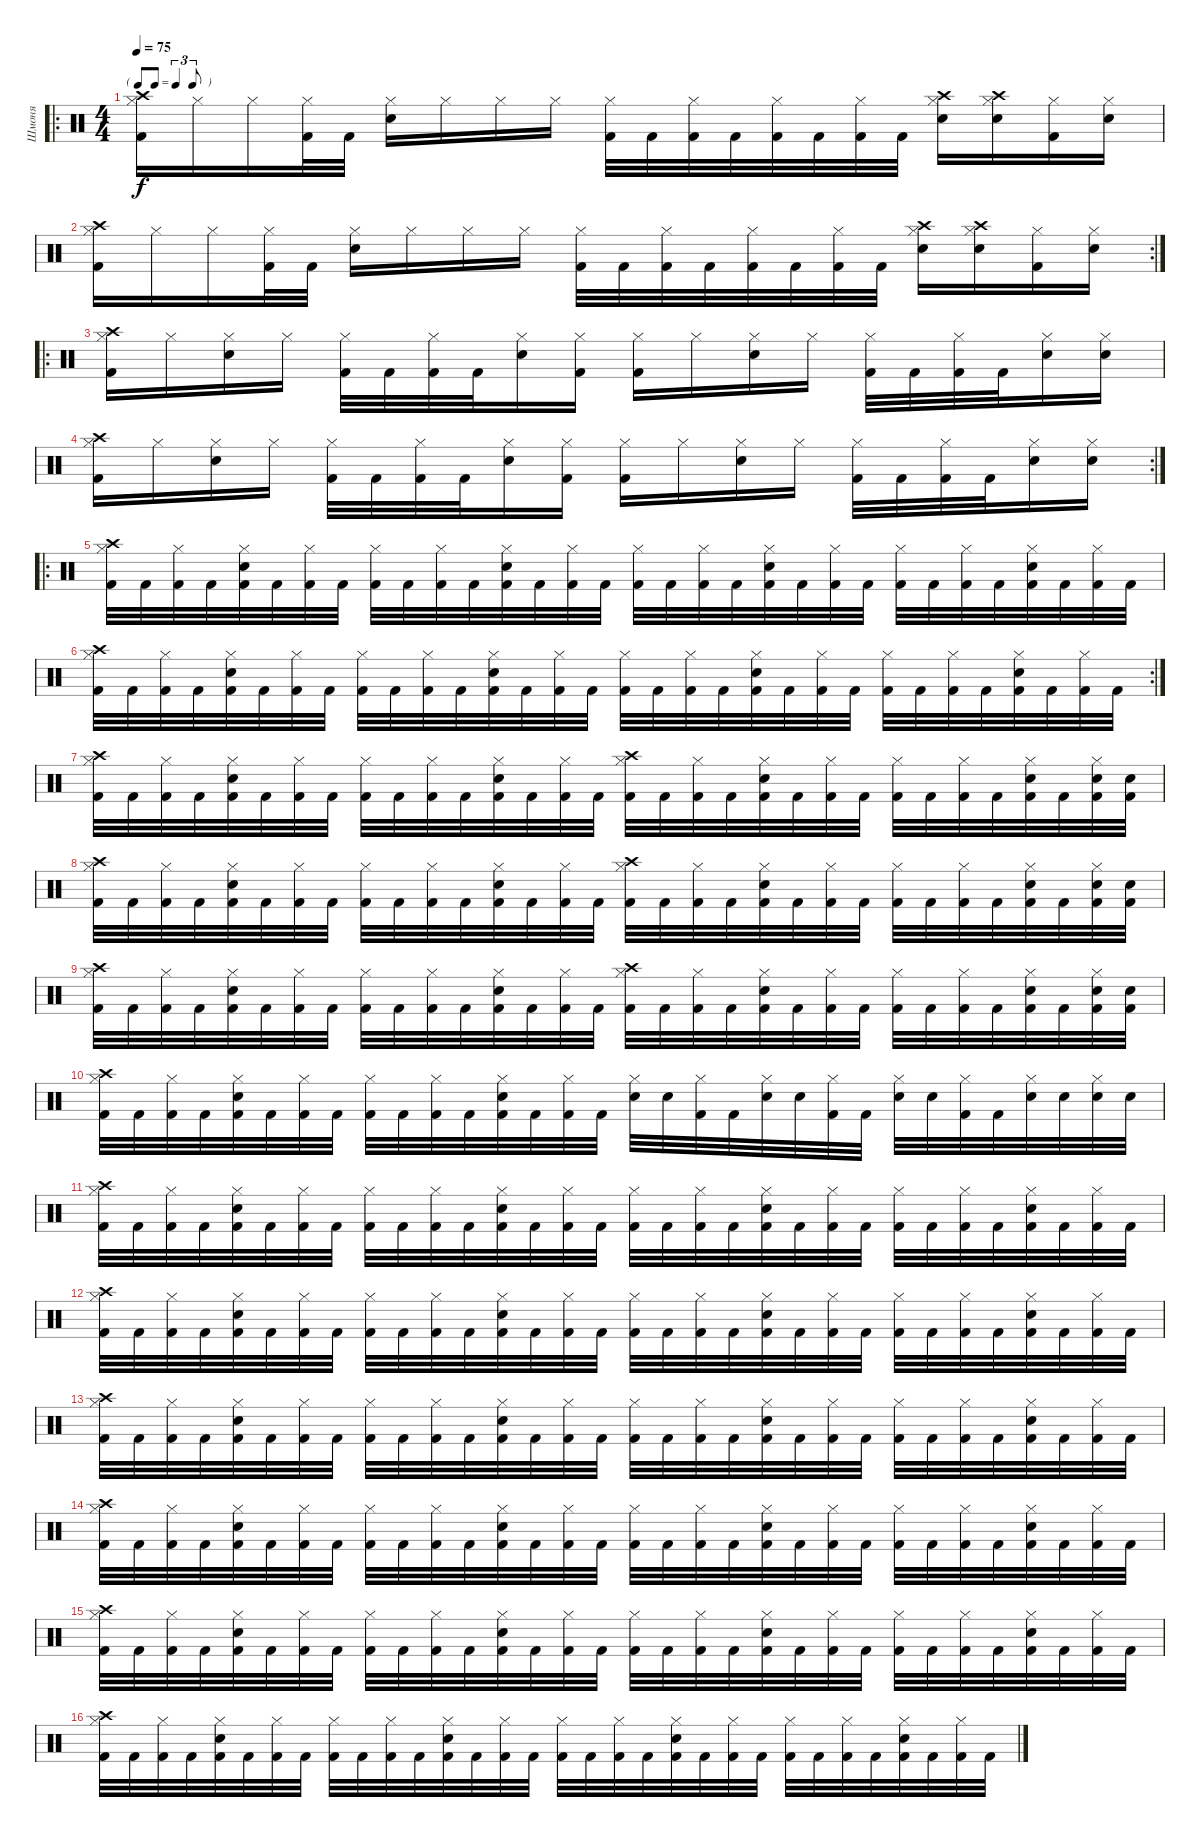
\track ("Шмоня" "Шмоня") {instrument percussion}
\staff {score}
\articulation defaults
\ro
\ts (4 4)
\tf triplet8th
\tempo 75
\clef neutral
\ks c
("Hi-Hat (closed)" "Crash high (hit)" "Kick (hit) 2").16{dy f} "Hi-Hat (closed)".16 "Hi-Hat (closed)".16 ("Hi-Hat (closed)" "Kick (hit) 2").32 "Kick (hit) 2".32 ("Hi-Hat (closed)" "Electric Snare (hit)").16 "Hi-Hat (closed)".16 "Hi-Hat (closed)".16 "Hi-Hat (closed)".16 ("Hi-Hat (closed)" "Kick (hit) 2").32 "Kick (hit) 2".32 ("Hi-Hat (closed)" "Kick (hit) 2").32 "Kick (hit) 2".32 ("Hi-Hat (closed)" "Kick (hit) 2").32 "Kick (hit) 2".32 ("Hi-Hat (closed)" "Kick (hit) 2").32 "Kick (hit) 2".32 ("Hi-Hat (closed)" "Crash high (hit)" "Electric Snare (hit)").16 ("Hi-Hat (closed)" "Crash high (hit)" "Electric Snare (hit)").16 ("Hi-Hat (closed)" "Kick (hit) 2").16 ("Hi-Hat (closed)" "Electric Snare (hit)").16 |
\rc 2
("Hi-Hat (closed)" "Crash high (hit)" "Kick (hit) 2").16 "Hi-Hat (closed)".16 "Hi-Hat (closed)".16 ("Hi-Hat (closed)" "Kick (hit) 2").32 "Kick (hit) 2".32 ("Hi-Hat (closed)" "Electric Snare (hit)").16 "Hi-Hat (closed)".16 "Hi-Hat (closed)".16 "Hi-Hat (closed)".16 ("Hi-Hat (closed)" "Kick (hit) 2").32 "Kick (hit) 2".32 ("Hi-Hat (closed)" "Kick (hit) 2").32 "Kick (hit) 2".32 ("Hi-Hat (closed)" "Kick (hit) 2").32 "Kick (hit) 2".32 ("Hi-Hat (closed)" "Kick (hit) 2").32 "Kick (hit) 2".32 ("Hi-Hat (closed)" "Crash high (hit)" "Electric Snare (hit)").16 ("Hi-Hat (closed)" "Crash high (hit)" "Electric Snare (hit)").16 ("Hi-Hat (closed)" "Kick (hit) 2").16 ("Hi-Hat (closed)" "Electric Snare (hit)").16 |
\ro
("Hi-Hat (closed)" "Crash high (hit)" "Kick (hit) 2").16 "Hi-Hat (closed)".16 ("Hi-Hat (closed)" "Electric Snare (hit)").16 "Hi-Hat (closed)".16 ("Hi-Hat (closed)" "Kick (hit) 2").32 "Kick (hit) 2".32 ("Hi-Hat (closed)" "Kick (hit) 2").32 "Kick (hit) 2".32 ("Hi-Hat (closed)" "Electric Snare (hit)").16 ("Hi-Hat (closed)" "Kick (hit) 2").16 ("Hi-Hat (closed)" "Kick (hit) 2").16 "Hi-Hat (closed)".16 ("Hi-Hat (closed)" "Electric Snare (hit)").16 "Hi-Hat (closed)".16 ("Hi-Hat (closed)" "Kick (hit) 2").32 "Kick (hit) 2".32 ("Hi-Hat (closed)" "Kick (hit) 2").32 "Kick (hit) 2".32 ("Hi-Hat (closed)" "Electric Snare (hit)").16 ("Hi-Hat (closed)" "Electric Snare (hit)").16 |
\rc 2
("Hi-Hat (closed)" "Crash high (hit)" "Kick (hit) 2").16 "Hi-Hat (closed)".16 ("Hi-Hat (closed)" "Electric Snare (hit)").16 "Hi-Hat (closed)".16 ("Hi-Hat (closed)" "Kick (hit) 2").32 "Kick (hit) 2".32 ("Hi-Hat (closed)" "Kick (hit) 2").32 "Kick (hit) 2".32 ("Hi-Hat (closed)" "Electric Snare (hit)").16 ("Hi-Hat (closed)" "Kick (hit) 2").16 ("Hi-Hat (closed)" "Kick (hit) 2").16 "Hi-Hat (closed)".16 ("Hi-Hat (closed)" "Electric Snare (hit)").16 "Hi-Hat (closed)".16 ("Hi-Hat (closed)" "Kick (hit) 2").32 "Kick (hit) 2".32 ("Hi-Hat (closed)" "Kick (hit) 2").32 "Kick (hit) 2".32 ("Hi-Hat (closed)" "Electric Snare (hit)").16 ("Hi-Hat (closed)" "Electric Snare (hit)").16 |
\ro
("Hi-Hat (closed)" "Crash high (hit)" "Kick (hit) 2").32 "Kick (hit) 2".32 ("Hi-Hat (closed)" "Kick (hit) 2").32 "Kick (hit) 2".32 ("Hi-Hat (closed)" "Electric Snare (hit)" "Kick (hit) 2").32 "Kick (hit) 2".32 ("Hi-Hat (closed)" "Kick (hit) 2").32 "Kick (hit) 2".32 ("Hi-Hat (closed)" "Kick (hit) 2").32 "Kick (hit) 2".32 ("Hi-Hat (closed)" "Kick (hit) 2").32 "Kick (hit) 2".32 ("Hi-Hat (closed)" "Electric Snare (hit)" "Kick (hit) 2").32 "Kick (hit) 2".32 ("Hi-Hat (closed)" "Kick (hit) 2").32 "Kick (hit) 2".32 ("Hi-Hat (closed)" "Kick (hit) 2").32 "Kick (hit) 2".32 ("Hi-Hat (closed)" "Kick (hit) 2").32 "Kick (hit) 2".32 ("Hi-Hat (closed)" "Electric Snare (hit)" "Kick (hit) 2").32 "Kick (hit) 2".32 ("Hi-Hat (closed)" "Kick (hit) 2").32 "Kick (hit) 2".32 ("Hi-Hat (closed)" "Kick (hit) 2").32 "Kick (hit) 2".32 ("Hi-Hat (closed)" "Kick (hit) 2").32 "Kick (hit) 2".32 ("Hi-Hat (closed)" "Electric Snare (hit)" "Kick (hit) 2").32 "Kick (hit) 2".32 ("Hi-Hat (closed)" "Kick (hit) 2").32 "Kick (hit) 2".32 |
\rc 2
("Hi-Hat (closed)" "Crash high (hit)" "Kick (hit) 2").32 "Kick (hit) 2".32 ("Hi-Hat (closed)" "Kick (hit) 2").32 "Kick (hit) 2".32 ("Hi-Hat (closed)" "Electric Snare (hit)" "Kick (hit) 2").32 "Kick (hit) 2".32 ("Hi-Hat (closed)" "Kick (hit) 2").32 "Kick (hit) 2".32 ("Hi-Hat (closed)" "Kick (hit) 2").32 "Kick (hit) 2".32 ("Hi-Hat (closed)" "Kick (hit) 2").32 "Kick (hit) 2".32 ("Hi-Hat (closed)" "Electric Snare (hit)" "Kick (hit) 2").32 "Kick (hit) 2".32 ("Hi-Hat (closed)" "Kick (hit) 2").32 "Kick (hit) 2".32 ("Hi-Hat (closed)" "Kick (hit) 2").32 "Kick (hit) 2".32 ("Hi-Hat (closed)" "Kick (hit) 2").32 "Kick (hit) 2".32 ("Hi-Hat (closed)" "Electric Snare (hit)" "Kick (hit) 2").32 "Kick (hit) 2".32 ("Hi-Hat (closed)" "Kick (hit) 2").32 "Kick (hit) 2".32 ("Hi-Hat (closed)" "Kick (hit) 2").32 "Kick (hit) 2".32 ("Hi-Hat (closed)" "Kick (hit) 2").32 "Kick (hit) 2".32 ("Hi-Hat (closed)" "Electric Snare (hit)" "Kick (hit) 2").32 "Kick (hit) 2".32 ("Hi-Hat (closed)" "Kick (hit) 2").32 "Kick (hit) 2".32 |
("Hi-Hat (closed)" "Crash high (hit)" "Kick (hit) 2").32 "Kick (hit) 2".32 ("Hi-Hat (closed)" "Kick (hit) 2").32 "Kick (hit) 2".32 ("Hi-Hat (closed)" "Electric Snare (hit)" "Kick (hit) 2").32 "Kick (hit) 2".32 ("Hi-Hat (closed)" "Kick (hit) 2").32 "Kick (hit) 2".32 ("Hi-Hat (closed)" "Kick (hit) 2").32 "Kick (hit) 2".32 ("Hi-Hat (closed)" "Kick (hit) 2").32 "Kick (hit) 2".32 ("Hi-Hat (closed)" "Electric Snare (hit)" "Kick (hit) 2").32 "Kick (hit) 2".32 ("Hi-Hat (closed)" "Kick (hit) 2").32 "Kick (hit) 2".32 ("Hi-Hat (closed)" "Crash high (hit)" "Kick (hit) 2").32 "Kick (hit) 2".32 ("Hi-Hat (closed)" "Kick (hit) 2").32 "Kick (hit) 2".32 ("Hi-Hat (closed)" "Electric Snare (hit)" "Kick (hit) 2").32 "Kick (hit) 2".32 ("Hi-Hat (closed)" "Kick (hit) 2").32 "Kick (hit) 2".32 ("Hi-Hat (closed)" "Kick (hit) 2").32 "Kick (hit) 2".32 ("Hi-Hat (closed)" "Kick (hit) 2").32 "Kick (hit) 2".32 ("Hi-Hat (closed)" "Electric Snare (hit)" "Kick (hit) 2").32 "Kick (hit) 2".32 ("Hi-Hat (closed)" "Electric Snare (hit)" "Kick (hit) 2").32 ("Electric Snare (hit)" "Kick (hit) 2").32 |
("Hi-Hat (closed)" "Crash high (hit)" "Kick (hit) 2").32 "Kick (hit) 2".32 ("Hi-Hat (closed)" "Kick (hit) 2").32 "Kick (hit) 2".32 ("Hi-Hat (closed)" "Electric Snare (hit)" "Kick (hit) 2").32 "Kick (hit) 2".32 ("Hi-Hat (closed)" "Kick (hit) 2").32 "Kick (hit) 2".32 ("Hi-Hat (closed)" "Kick (hit) 2").32 "Kick (hit) 2".32 ("Hi-Hat (closed)" "Kick (hit) 2").32 "Kick (hit) 2".32 ("Hi-Hat (closed)" "Electric Snare (hit)" "Kick (hit) 2").32 "Kick (hit) 2".32 ("Hi-Hat (closed)" "Kick (hit) 2").32 "Kick (hit) 2".32 ("Hi-Hat (closed)" "Crash high (hit)" "Kick (hit) 2").32 "Kick (hit) 2".32 ("Hi-Hat (closed)" "Kick (hit) 2").32 "Kick (hit) 2".32 ("Hi-Hat (closed)" "Electric Snare (hit)" "Kick (hit) 2").32 "Kick (hit) 2".32 ("Hi-Hat (closed)" "Kick (hit) 2").32 "Kick (hit) 2".32 ("Hi-Hat (closed)" "Kick (hit) 2").32 "Kick (hit) 2".32 ("Hi-Hat (closed)" "Kick (hit) 2").32 "Kick (hit) 2".32 ("Hi-Hat (closed)" "Electric Snare (hit)" "Kick (hit) 2").32 "Kick (hit) 2".32 ("Hi-Hat (closed)" "Electric Snare (hit)" "Kick (hit) 2").32 ("Electric Snare (hit)" "Kick (hit) 2").32 |
("Hi-Hat (closed)" "Crash high (hit)" "Kick (hit) 2").32 "Kick (hit) 2".32 ("Hi-Hat (closed)" "Kick (hit) 2").32 "Kick (hit) 2".32 ("Hi-Hat (closed)" "Electric Snare (hit)" "Kick (hit) 2").32 "Kick (hit) 2".32 ("Hi-Hat (closed)" "Kick (hit) 2").32 "Kick (hit) 2".32 ("Hi-Hat (closed)" "Kick (hit) 2").32 "Kick (hit) 2".32 ("Hi-Hat (closed)" "Kick (hit) 2").32 "Kick (hit) 2".32 ("Hi-Hat (closed)" "Electric Snare (hit)" "Kick (hit) 2").32 "Kick (hit) 2".32 ("Hi-Hat (closed)" "Kick (hit) 2").32 "Kick (hit) 2".32 ("Hi-Hat (closed)" "Crash high (hit)" "Kick (hit) 2").32 "Kick (hit) 2".32 ("Hi-Hat (closed)" "Kick (hit) 2").32 "Kick (hit) 2".32 ("Hi-Hat (closed)" "Electric Snare (hit)" "Kick (hit) 2").32 "Kick (hit) 2".32 ("Hi-Hat (closed)" "Kick (hit) 2").32 "Kick (hit) 2".32 ("Hi-Hat (closed)" "Kick (hit) 2").32 "Kick (hit) 2".32 ("Hi-Hat (closed)" "Kick (hit) 2").32 "Kick (hit) 2".32 ("Hi-Hat (closed)" "Electric Snare (hit)" "Kick (hit) 2").32 "Kick (hit) 2".32 ("Hi-Hat (closed)" "Electric Snare (hit)" "Kick (hit) 2").32 ("Electric Snare (hit)" "Kick (hit) 2").32 |
("Hi-Hat (closed)" "Crash high (hit)" "Kick (hit) 2").32 "Kick (hit) 2".32 ("Hi-Hat (closed)" "Kick (hit) 2").32 "Kick (hit) 2".32 ("Hi-Hat (closed)" "Electric Snare (hit)" "Kick (hit) 2").32 "Kick (hit) 2".32 ("Hi-Hat (closed)" "Kick (hit) 2").32 "Kick (hit) 2".32 ("Hi-Hat (closed)" "Kick (hit) 2").32 "Kick (hit) 2".32 ("Hi-Hat (closed)" "Kick (hit) 2").32 "Kick (hit) 2".32 ("Hi-Hat (closed)" "Electric Snare (hit)" "Kick (hit) 2").32 "Kick (hit) 2".32 ("Hi-Hat (closed)" "Kick (hit) 2").32 "Kick (hit) 2".32 ("Hi-Hat (closed)" "Electric Snare (hit)").32 "Electric Snare (hit)".32 ("Hi-Hat (closed)" "Kick (hit) 2").32 "Kick (hit) 2".32 ("Hi-Hat (closed)" "Electric Snare (hit)").32 "Electric Snare (hit)".32 ("Hi-Hat (closed)" "Kick (hit) 2").32 "Kick (hit) 2".32 ("Hi-Hat (closed)" "Electric Snare (hit)").32 "Electric Snare (hit)".32 ("Hi-Hat (closed)" "Kick (hit) 2").32 "Kick (hit) 2".32 ("Hi-Hat (closed)" "Electric Snare (hit)").32 "Electric Snare (hit)".32 ("Hi-Hat (closed)" "Electric Snare (hit)").32 "Electric Snare (hit)".32 |
("Hi-Hat (closed)" "Crash high (hit)" "Kick (hit) 2").32 "Kick (hit) 2".32 ("Hi-Hat (closed)" "Kick (hit) 2").32 "Kick (hit) 2".32 ("Hi-Hat (closed)" "Electric Snare (hit)" "Kick (hit) 2").32 "Kick (hit) 2".32 ("Hi-Hat (closed)" "Kick (hit) 2").32 "Kick (hit) 2".32 ("Hi-Hat (closed)" "Kick (hit) 2").32 "Kick (hit) 2".32 ("Hi-Hat (closed)" "Kick (hit) 2").32 "Kick (hit) 2".32 ("Hi-Hat (closed)" "Electric Snare (hit)" "Kick (hit) 2").32 "Kick (hit) 2".32 ("Hi-Hat (closed)" "Kick (hit) 2").32 "Kick (hit) 2".32 ("Hi-Hat (closed)" "Kick (hit) 2").32 "Kick (hit) 2".32 ("Hi-Hat (closed)" "Kick (hit) 2").32 "Kick (hit) 2".32 ("Hi-Hat (closed)" "Electric Snare (hit)" "Kick (hit) 2").32 "Kick (hit) 2".32 ("Hi-Hat (closed)" "Kick (hit) 2").32 "Kick (hit) 2".32 ("Hi-Hat (closed)" "Kick (hit) 2").32 "Kick (hit) 2".32 ("Hi-Hat (closed)" "Kick (hit) 2").32 "Kick (hit) 2".32 ("Hi-Hat (closed)" "Electric Snare (hit)" "Kick (hit) 2").32 "Kick (hit) 2".32 ("Hi-Hat (closed)" "Kick (hit) 2").32 "Kick (hit) 2".32 |
("Hi-Hat (closed)" "Crash high (hit)" "Kick (hit) 2").32 "Kick (hit) 2".32 ("Hi-Hat (closed)" "Kick (hit) 2").32 "Kick (hit) 2".32 ("Hi-Hat (closed)" "Electric Snare (hit)" "Kick (hit) 2").32 "Kick (hit) 2".32 ("Hi-Hat (closed)" "Kick (hit) 2").32 "Kick (hit) 2".32 ("Hi-Hat (closed)" "Kick (hit) 2").32 "Kick (hit) 2".32 ("Hi-Hat (closed)" "Kick (hit) 2").32 "Kick (hit) 2".32 ("Hi-Hat (closed)" "Electric Snare (hit)" "Kick (hit) 2").32 "Kick (hit) 2".32 ("Hi-Hat (closed)" "Kick (hit) 2").32 "Kick (hit) 2".32 ("Hi-Hat (closed)" "Kick (hit) 2").32 "Kick (hit) 2".32 ("Hi-Hat (closed)" "Kick (hit) 2").32 "Kick (hit) 2".32 ("Hi-Hat (closed)" "Electric Snare (hit)" "Kick (hit) 2").32 "Kick (hit) 2".32 ("Hi-Hat (closed)" "Kick (hit) 2").32 "Kick (hit) 2".32 ("Hi-Hat (closed)" "Kick (hit) 2").32 "Kick (hit) 2".32 ("Hi-Hat (closed)" "Kick (hit) 2").32 "Kick (hit) 2".32 ("Hi-Hat (closed)" "Electric Snare (hit)" "Kick (hit) 2").32 "Kick (hit) 2".32 ("Hi-Hat (closed)" "Kick (hit) 2").32 "Kick (hit) 2".32 |
("Hi-Hat (closed)" "Crash high (hit)" "Kick (hit) 2").32 "Kick (hit) 2".32 ("Hi-Hat (closed)" "Kick (hit) 2").32 "Kick (hit) 2".32 ("Hi-Hat (closed)" "Electric Snare (hit)" "Kick (hit) 2").32 "Kick (hit) 2".32 ("Hi-Hat (closed)" "Kick (hit) 2").32 "Kick (hit) 2".32 ("Hi-Hat (closed)" "Kick (hit) 2").32 "Kick (hit) 2".32 ("Hi-Hat (closed)" "Kick (hit) 2").32 "Kick (hit) 2".32 ("Hi-Hat (closed)" "Electric Snare (hit)" "Kick (hit) 2").32 "Kick (hit) 2".32 ("Hi-Hat (closed)" "Kick (hit) 2").32 "Kick (hit) 2".32 ("Hi-Hat (closed)" "Kick (hit) 2").32 "Kick (hit) 2".32 ("Hi-Hat (closed)" "Kick (hit) 2").32 "Kick (hit) 2".32 ("Hi-Hat (closed)" "Electric Snare (hit)" "Kick (hit) 2").32 "Kick (hit) 2".32 ("Hi-Hat (closed)" "Kick (hit) 2").32 "Kick (hit) 2".32 ("Hi-Hat (closed)" "Kick (hit) 2").32 "Kick (hit) 2".32 ("Hi-Hat (closed)" "Kick (hit) 2").32 "Kick (hit) 2".32 ("Hi-Hat (closed)" "Electric Snare (hit)" "Kick (hit) 2").32 "Kick (hit) 2".32 ("Hi-Hat (closed)" "Kick (hit) 2").32 "Kick (hit) 2".32 |
("Hi-Hat (closed)" "Crash high (hit)" "Kick (hit) 2").32 "Kick (hit) 2".32 ("Hi-Hat (closed)" "Kick (hit) 2").32 "Kick (hit) 2".32 ("Hi-Hat (closed)" "Electric Snare (hit)" "Kick (hit) 2").32 "Kick (hit) 2".32 ("Hi-Hat (closed)" "Kick (hit) 2").32 "Kick (hit) 2".32 ("Hi-Hat (closed)" "Kick (hit) 2").32 "Kick (hit) 2".32 ("Hi-Hat (closed)" "Kick (hit) 2").32 "Kick (hit) 2".32 ("Hi-Hat (closed)" "Electric Snare (hit)" "Kick (hit) 2").32 "Kick (hit) 2".32 ("Hi-Hat (closed)" "Kick (hit) 2").32 "Kick (hit) 2".32 ("Hi-Hat (closed)" "Kick (hit) 2").32 "Kick (hit) 2".32 ("Hi-Hat (closed)" "Kick (hit) 2").32 "Kick (hit) 2".32 ("Hi-Hat (closed)" "Electric Snare (hit)" "Kick (hit) 2").32 "Kick (hit) 2".32 ("Hi-Hat (closed)" "Kick (hit) 2").32 "Kick (hit) 2".32 ("Hi-Hat (closed)" "Kick (hit) 2").32 "Kick (hit) 2".32 ("Hi-Hat (closed)" "Kick (hit) 2").32 "Kick (hit) 2".32 ("Hi-Hat (closed)" "Electric Snare (hit)" "Kick (hit) 2").32 "Kick (hit) 2".32 ("Hi-Hat (closed)" "Kick (hit) 2").32 "Kick (hit) 2".32 |
("Hi-Hat (closed)" "Crash high (hit)" "Kick (hit) 2").32 "Kick (hit) 2".32 ("Hi-Hat (closed)" "Kick (hit) 2").32 "Kick (hit) 2".32 ("Hi-Hat (closed)" "Electric Snare (hit)" "Kick (hit) 2").32 "Kick (hit) 2".32 ("Hi-Hat (closed)" "Kick (hit) 2").32 "Kick (hit) 2".32 ("Hi-Hat (closed)" "Kick (hit) 2").32 "Kick (hit) 2".32 ("Hi-Hat (closed)" "Kick (hit) 2").32 "Kick (hit) 2".32 ("Hi-Hat (closed)" "Electric Snare (hit)" "Kick (hit) 2").32 "Kick (hit) 2".32 ("Hi-Hat (closed)" "Kick (hit) 2").32 "Kick (hit) 2".32 ("Hi-Hat (closed)" "Kick (hit) 2").32 "Kick (hit) 2".32 ("Hi-Hat (closed)" "Kick (hit) 2").32 "Kick (hit) 2".32 ("Hi-Hat (closed)" "Electric Snare (hit)" "Kick (hit) 2").32 "Kick (hit) 2".32 ("Hi-Hat (closed)" "Kick (hit) 2").32 "Kick (hit) 2".32 ("Hi-Hat (closed)" "Kick (hit) 2").32 "Kick (hit) 2".32 ("Hi-Hat (closed)" "Kick (hit) 2").32 "Kick (hit) 2".32 ("Hi-Hat (closed)" "Electric Snare (hit)" "Kick (hit) 2").32 "Kick (hit) 2".32 ("Hi-Hat (closed)" "Kick (hit) 2").32 "Kick (hit) 2".32 |
("Hi-Hat (closed)" "Crash high (hit)" "Kick (hit) 2").32 "Kick (hit) 2".32 ("Hi-Hat (closed)" "Kick (hit) 2").32 "Kick (hit) 2".32 ("Hi-Hat (closed)" "Electric Snare (hit)" "Kick (hit) 2").32 "Kick (hit) 2".32 ("Hi-Hat (closed)" "Kick (hit) 2").32 "Kick (hit) 2".32 ("Hi-Hat (closed)" "Kick (hit) 2").32 "Kick (hit) 2".32 ("Hi-Hat (closed)" "Kick (hit) 2").32 "Kick (hit) 2".32 ("Hi-Hat (closed)" "Electric Snare (hit)" "Kick (hit) 2").32 "Kick (hit) 2".32 ("Hi-Hat (closed)" "Kick (hit) 2").32 "Kick (hit) 2".32 ("Hi-Hat (closed)" "Kick (hit) 2").32 "Kick (hit) 2".32 ("Hi-Hat (closed)" "Kick (hit) 2").32 "Kick (hit) 2".32 ("Hi-Hat (closed)" "Electric Snare (hit)" "Kick (hit) 2").32 "Kick (hit) 2".32 ("Hi-Hat (closed)" "Kick (hit) 2").32 "Kick (hit) 2".32 ("Hi-Hat (closed)" "Kick (hit) 2").32 "Kick (hit) 2".32 ("Hi-Hat (closed)" "Kick (hit) 2").32 "Kick (hit) 2".32 ("Hi-Hat (closed)" "Electric Snare (hit)" "Kick (hit) 2").32 "Kick (hit) 2".32 ("Hi-Hat (closed)" "Kick (hit) 2").32 "Kick (hit) 2".32
